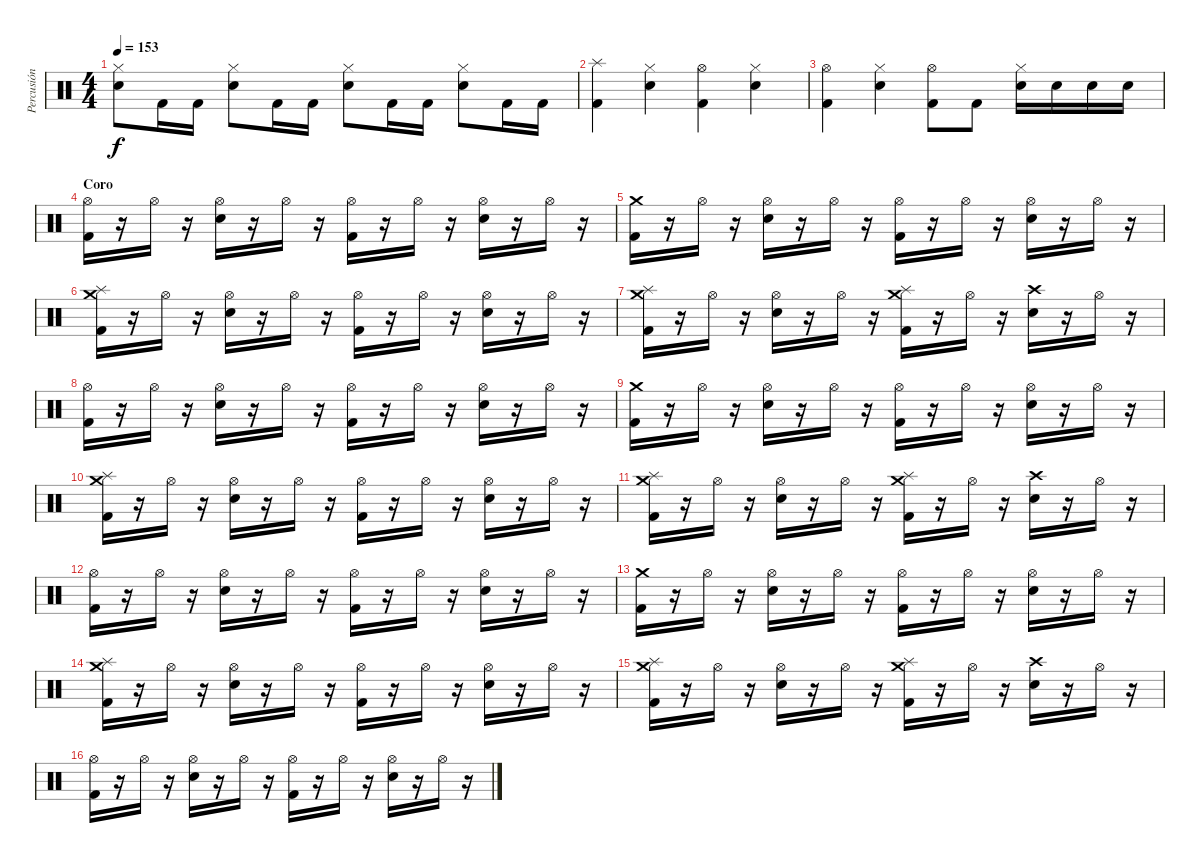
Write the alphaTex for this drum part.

\track ("Percusión" "Percusión") {instrument percussion}
\staff {score}
\articulation defaults
\ts (4 4)
\tempo 153
\clef neutral
\ks c
("Electric Snare (hit)" "Hi-Hat (closed)").8{dy f} "Kick (hit) 2".16 "Kick (hit) 2".16 ("Electric Snare (hit)" "Hi-Hat (closed)").8 "Kick (hit) 2".16 "Kick (hit) 2".16 ("Electric Snare (hit)" "Hi-Hat (closed)").8 "Kick (hit) 2".16 "Kick (hit) 2".16 ("Electric Snare (hit)" "Hi-Hat (closed)").8 "Kick (hit) 2".16 "Kick (hit) 2".16 |
("Kick (hit) 2" "Splash (hit)").4 ("Electric Snare (hit)" "Hi-Hat (closed)").4 ("Kick (hit) 2" "Hi-Hat (open)").4 ("Electric Snare (hit)" "Hi-Hat (closed)").4 |
("Kick (hit) 2" "Hi-Hat (open)").4 ("Electric Snare (hit)" "Hi-Hat (closed)").4 ("Kick (hit) 2" "Hi-Hat (open)").8 "Kick (hit) 2".8 ("Electric Snare (hit)" "Hi-Hat (closed)").16 "Electric Snare (hit)".16 "Electric Snare (hit)".16 "Electric Snare (hit)".16 |
\section ("" "Coro")
("Kick (hit) 2" "Hi-Hat (open)").16 r.16 "Hi-Hat (open)".16 r.16 ("Electric Snare (hit)" "Hi-Hat (open)").16 r.16 "Hi-Hat (open)".16 r.16 ("Kick (hit) 2" "Hi-Hat (open)").16 r.16 "Hi-Hat (open)".16 r.16 ("Electric Snare (hit)" "Hi-Hat (open)").16 r.16 "Hi-Hat (open)".16 r.16 |
("Kick (hit) 2" "Crash medium (hit)").16 r.16 "Hi-Hat (open)".16 r.16 ("Electric Snare (hit)" "Hi-Hat (open)").16 r.16 "Hi-Hat (open)".16 r.16 ("Kick (hit) 2" "Hi-Hat (open)").16 r.16 "Hi-Hat (open)".16 r.16 ("Electric Snare (hit)" "Hi-Hat (open)").16 r.16 "Hi-Hat (open)".16 r.16 |
("Kick (hit) 2" "Crash medium (hit)" "Splash (hit)").16 r.16 "Hi-Hat (open)".16 r.16 ("Electric Snare (hit)" "Hi-Hat (open)").16 r.16 "Hi-Hat (open)".16 r.16 ("Kick (hit) 2" "Hi-Hat (open)").16 r.16 "Hi-Hat (open)".16 r.16 ("Electric Snare (hit)" "Hi-Hat (open)").16 r.16 "Hi-Hat (open)".16 r.16 |
("Kick (hit) 2" "Crash medium (hit)" "Splash (hit)").16 r.16 "Hi-Hat (open)".16 r.16 ("Electric Snare (hit)" "Hi-Hat (open)").16 r.16 "Hi-Hat (open)".16 r.16 ("Kick (hit) 2" "Crash medium (hit)" "Splash (hit)").16 r.16 "Hi-Hat (open)".16 r.16 ("Electric Snare (hit)" "Crash high (hit)").16 r.16 "Hi-Hat (open)".16 r.16 |
("Kick (hit) 2" "Hi-Hat (open)").16 r.16 "Hi-Hat (open)".16 r.16 ("Electric Snare (hit)" "Hi-Hat (open)").16 r.16 "Hi-Hat (open)".16 r.16 ("Kick (hit) 2" "Hi-Hat (open)").16 r.16 "Hi-Hat (open)".16 r.16 ("Electric Snare (hit)" "Hi-Hat (open)").16 r.16 "Hi-Hat (open)".16 r.16 |
("Kick (hit) 2" "Crash medium (hit)").16 r.16 "Hi-Hat (open)".16 r.16 ("Electric Snare (hit)" "Hi-Hat (open)").16 r.16 "Hi-Hat (open)".16 r.16 ("Kick (hit) 2" "Hi-Hat (open)").16 r.16 "Hi-Hat (open)".16 r.16 ("Electric Snare (hit)" "Hi-Hat (open)").16 r.16 "Hi-Hat (open)".16 r.16 |
("Kick (hit) 2" "Crash medium (hit)" "Splash (hit)").16 r.16 "Hi-Hat (open)".16 r.16 ("Electric Snare (hit)" "Hi-Hat (open)").16 r.16 "Hi-Hat (open)".16 r.16 ("Kick (hit) 2" "Hi-Hat (open)").16 r.16 "Hi-Hat (open)".16 r.16 ("Electric Snare (hit)" "Hi-Hat (open)").16 r.16 "Hi-Hat (open)".16 r.16 |
("Kick (hit) 2" "Crash medium (hit)" "Splash (hit)").16 r.16 "Hi-Hat (open)".16 r.16 ("Electric Snare (hit)" "Hi-Hat (open)").16 r.16 "Hi-Hat (open)".16 r.16 ("Kick (hit) 2" "Crash medium (hit)" "Splash (hit)").16 r.16 "Hi-Hat (open)".16 r.16 ("Electric Snare (hit)" "Crash high (hit)").16 r.16 "Hi-Hat (open)".16 r.16 |
("Kick (hit) 2" "Hi-Hat (open)").16 r.16 "Hi-Hat (open)".16 r.16 ("Electric Snare (hit)" "Hi-Hat (open)").16 r.16 "Hi-Hat (open)".16 r.16 ("Kick (hit) 2" "Hi-Hat (open)").16 r.16 "Hi-Hat (open)".16 r.16 ("Electric Snare (hit)" "Hi-Hat (open)").16 r.16 "Hi-Hat (open)".16 r.16 |
("Kick (hit) 2" "Crash medium (hit)").16 r.16 "Hi-Hat (open)".16 r.16 ("Electric Snare (hit)" "Hi-Hat (open)").16 r.16 "Hi-Hat (open)".16 r.16 ("Kick (hit) 2" "Hi-Hat (open)").16 r.16 "Hi-Hat (open)".16 r.16 ("Electric Snare (hit)" "Hi-Hat (open)").16 r.16 "Hi-Hat (open)".16 r.16 |
("Kick (hit) 2" "Crash medium (hit)" "Splash (hit)").16 r.16 "Hi-Hat (open)".16 r.16 ("Electric Snare (hit)" "Hi-Hat (open)").16 r.16 "Hi-Hat (open)".16 r.16 ("Kick (hit) 2" "Hi-Hat (open)").16 r.16 "Hi-Hat (open)".16 r.16 ("Electric Snare (hit)" "Hi-Hat (open)").16 r.16 "Hi-Hat (open)".16 r.16 |
("Kick (hit) 2" "Crash medium (hit)" "Splash (hit)").16 r.16 "Hi-Hat (open)".16 r.16 ("Electric Snare (hit)" "Hi-Hat (open)").16 r.16 "Hi-Hat (open)".16 r.16 ("Kick (hit) 2" "Crash medium (hit)" "Splash (hit)").16 r.16 "Hi-Hat (open)".16 r.16 ("Electric Snare (hit)" "Crash high (hit)").16 r.16 "Hi-Hat (open)".16 r.16 |
("Kick (hit) 2" "Hi-Hat (open)").16 r.16 "Hi-Hat (open)".16 r.16 ("Electric Snare (hit)" "Hi-Hat (open)").16 r.16 "Hi-Hat (open)".16 r.16 ("Kick (hit) 2" "Hi-Hat (open)").16 r.16 "Hi-Hat (open)".16 r.16 ("Electric Snare (hit)" "Hi-Hat (open)").16 r.16 "Hi-Hat (open)".16 r.16
